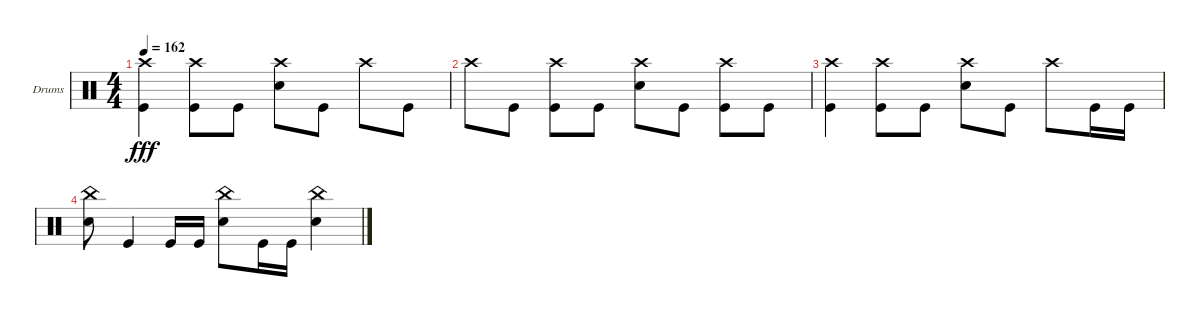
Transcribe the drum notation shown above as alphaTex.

\bracketExtendMode groupsimilarinstruments
\firstSystemTrackNameOrientation horizontal
\otherSystemsTrackNameOrientation horizontal
\track ("Drumkit" "Drums") {instrument percussion}
\staff {score}
\articulation defaults
\ts (4 4)
\tempo 162
\clef neutral
\ks c
("Kick (hit)" "Crash high (hit)").4{dy fff} ("Kick (hit)" "Crash high (hit)").8 "Kick (hit)".8 ("Snare (hit) 2" "Crash high (hit)").8 "Kick (hit)".8 "Crash high (hit)".8 "Kick (hit)".8 |
"Crash high (hit)".8 "Kick (hit)".8 ("Kick (hit)" "Crash high (hit)").8 "Kick (hit)".8 ("Snare (hit) 2" "Crash high (hit)").8 "Kick (hit)".8 ("Kick (hit)" "Crash high (hit)").8 "Kick (hit)".8 |
("Kick (hit)" "Crash high (hit)").4 ("Kick (hit)" "Crash high (hit)").8 "Kick (hit)".8 ("Snare (hit) 2" "Crash high (hit)").8 "Kick (hit)".8 "Crash high (hit)".8 "Kick (hit)".16 "Kick (hit)".16 |
("Snare (hit) 2" "China (hit)").8 "Kick (hit)".4 "Kick (hit)".16 "Kick (hit)".16 ("Snare (hit) 2" "China (hit)").8 "Kick (hit)".16 "Kick (hit)".16 ("Snare (hit) 2" "China (hit)").4
